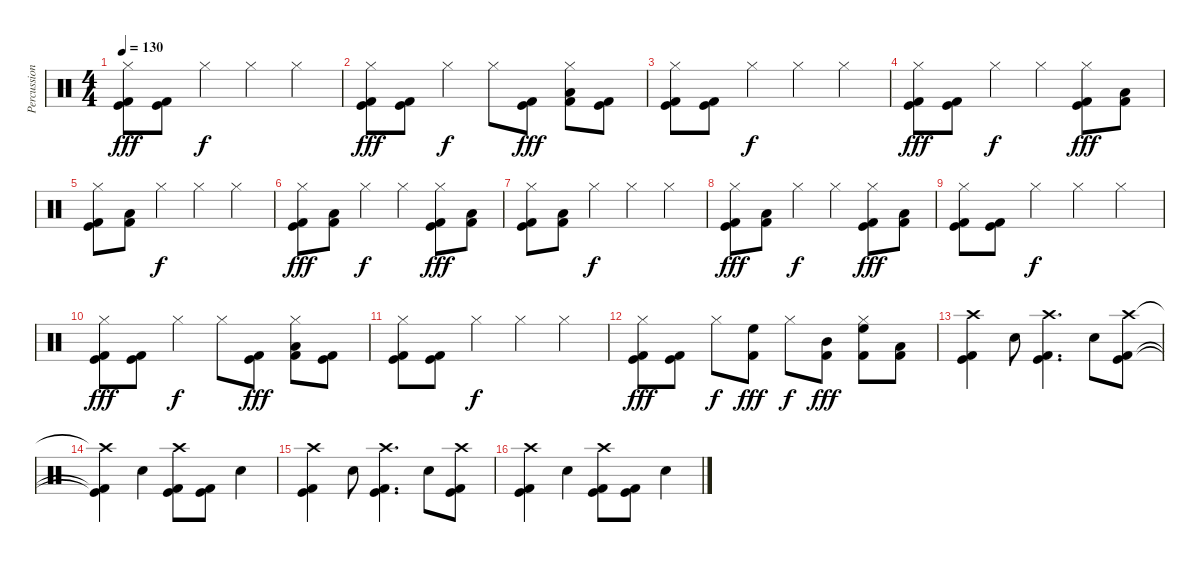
\track ("Percussion" "Percussion") {instrument percussion}
\staff {score}
\articulation defaults
\ts (4 4)
\tempo 130
\clef neutral
\ks c
("Hi-Hat (closed)" "Kick (hit)" "Kick (hit) 2").8{dy fff} ("Kick (hit) 2" "Kick (hit)").8 "Hi-Hat (closed)".4{dy f} "Hi-Hat (closed)".4 "Hi-Hat (closed)".4 |
("Hi-Hat (closed)" "Kick (hit)" "Kick (hit) 2").8{dy fff} ("Kick (hit)" "Kick (hit) 2").8 "Hi-Hat (closed)".4{dy f} "Hi-Hat (closed)".8 ("Kick (hit)" "Kick (hit) 2").8{dy fff} ("Hi-Hat (closed)" "Low Tom (hit)" "Kick (hit) 2").8 ("Kick (hit)" "Kick (hit) 2").8 |
("Hi-Hat (closed)" "Kick (hit)" "Kick (hit) 2").8 ("Kick (hit) 2" "Kick (hit)").8 "Hi-Hat (closed)".4{dy f} "Hi-Hat (closed)".4 "Hi-Hat (closed)".4 |
("Hi-Hat (closed)" "Kick (hit)" "Kick (hit) 2").8{dy fff} ("Kick (hit)" "Kick (hit) 2").8 "Hi-Hat (closed)".4{dy f} "Hi-Hat (closed)".4 ("Hi-Hat (closed)" "Kick (hit)" "Kick (hit) 2").8{dy fff} ("Low Tom (hit)" "Kick (hit) 2").8 |
("Hi-Hat (closed)" "Kick (hit)" "Kick (hit) 2").8 ("Low Tom (hit)" "Kick (hit) 2").8 "Hi-Hat (closed)".4{dy f} "Hi-Hat (closed)".4 "Hi-Hat (closed)".4 |
("Hi-Hat (closed)" "Kick (hit)" "Kick (hit) 2").8{dy fff} ("Low Tom (hit)" "Kick (hit) 2").8 "Hi-Hat (closed)".4{dy f} "Hi-Hat (closed)".4 ("Hi-Hat (closed)" "Kick (hit)" "Kick (hit) 2").8{dy fff} ("Low Tom (hit)" "Kick (hit) 2").8 |
("Hi-Hat (closed)" "Kick (hit)" "Kick (hit) 2").8 ("Low Tom (hit)" "Kick (hit) 2").8 "Hi-Hat (closed)".4{dy f} "Hi-Hat (closed)".4 "Hi-Hat (closed)".4 |
("Hi-Hat (closed)" "Kick (hit)" "Kick (hit) 2").8{dy fff} ("Low Tom (hit)" "Kick (hit) 2").8 "Hi-Hat (closed)".4{dy f} "Hi-Hat (closed)".4 ("Hi-Hat (closed)" "Kick (hit)" "Kick (hit) 2").8{dy fff} ("Low Tom (hit)" "Kick (hit) 2").8 |
("Hi-Hat (closed)" "Kick (hit)" "Kick (hit) 2").8 ("Kick (hit) 2" "Kick (hit)").8 "Hi-Hat (closed)".4{dy f} "Hi-Hat (closed)".4 "Hi-Hat (closed)".4 |
("Hi-Hat (closed)" "Kick (hit)" "Kick (hit) 2").8{dy fff} ("Kick (hit)" "Kick (hit) 2").8 "Hi-Hat (closed)".4{dy f} "Hi-Hat (closed)".8 ("Kick (hit)" "Kick (hit) 2").8{dy fff} ("Hi-Hat (closed)" "Low Tom (hit)" "Kick (hit) 2").8 ("Kick (hit)" "Kick (hit) 2").8 |
("Hi-Hat (closed)" "Kick (hit)" "Kick (hit) 2").8 ("Kick (hit) 2" "Kick (hit)").8 "Hi-Hat (closed)".4{dy f} "Hi-Hat (closed)".4 "Hi-Hat (closed)".4 |
("Hi-Hat (closed)" "Kick (hit)" "Kick (hit) 2").8{dy fff} ("Kick (hit)" "Kick (hit) 2").8 "Hi-Hat (closed)".8{dy f} ("High Floor Tom (hit)" "Kick (hit) 2").8{dy fff} "Hi-Hat (closed)".8{dy f} ("Mid Tom (hit)" "Kick (hit) 2").8{dy fff} ("Hi-Hat (closed)" "High Floor Tom (hit)" "Kick (hit) 2").8 ("Low Tom (hit)" "Kick (hit) 2").8 |
("Crash high (hit)" "Kick (hit)" "Kick (hit) 2").4 "Snare (hit) 2".8 ("Crash high (hit)" "Kick (hit)" "Kick (hit) 2").4{d} "Snare (hit) 2".8 ("Crash high (hit)" "Kick (hit)" "Kick (hit) 2").8 |
("Crash high (hit)"{t} "Kick (hit)"{t} "Kick (hit) 2"{t}).4 "Snare (hit) 2".4 ("Crash high (hit)" "Kick (hit)" "Kick (hit) 2").8 ("Kick (hit)" "Kick (hit) 2").8 "Snare (hit) 2".4 |
("Crash high (hit)" "Kick (hit)" "Kick (hit) 2").4 "Snare (hit) 2".8 ("Crash high (hit)" "Kick (hit)" "Kick (hit) 2").4{d} "Snare (hit) 2".8 ("Crash high (hit)" "Kick (hit)" "Kick (hit) 2").8 |
("Crash high (hit)" "Kick (hit)" "Kick (hit) 2").4 "Snare (hit) 2".4 ("Crash high (hit)" "Kick (hit)" "Kick (hit) 2").8 ("Kick (hit)" "Kick (hit) 2").8 "Snare (hit) 2".4
